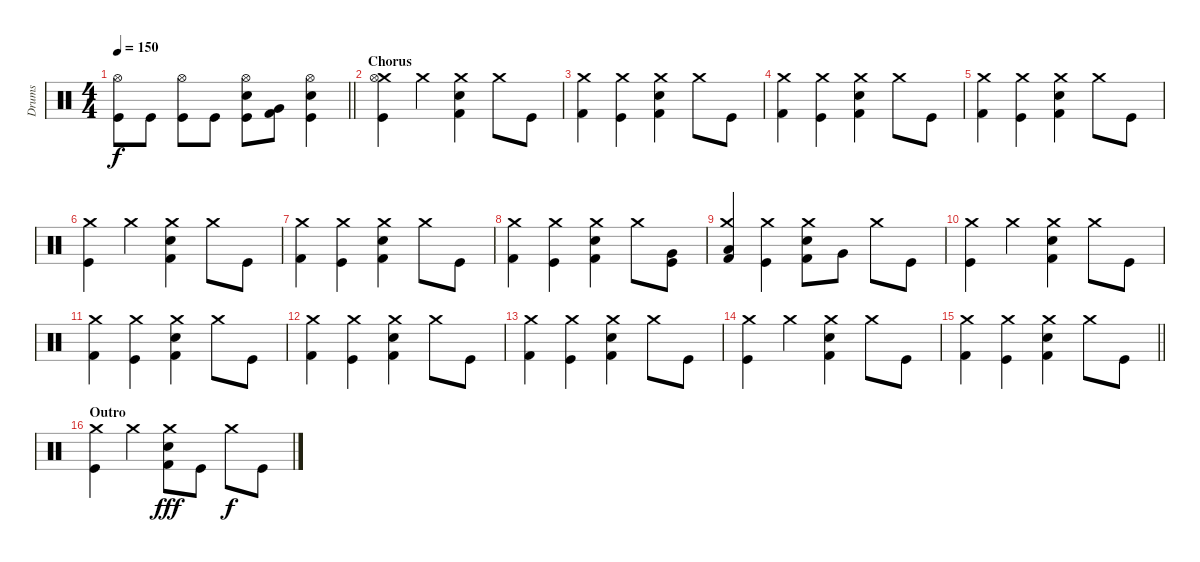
\track ("Drums" "Drums") {instrument percussion}
\staff {score}
\articulation defaults
\ts (4 4)
\tempo 150
\clef neutral
\barLineRight lightlight
\ks c
("Hi-Hat (open)" "Kick (hit)").8{dy f} "Kick (hit)".8 ("Hi-Hat (open)" "Kick (hit)").8 "Kick (hit)".8 ("Hi-Hat (open)" "Electric Snare (hit)" "Kick (hit)").8 ("Very Low Tom (hit)" "Kick (hit) 2").8 ("Hi-Hat (open)" "Electric Snare (hit)" "Kick (hit)").4 |
\section ("" "Chorus")
("Crash medium (hit)" "Hi-Hat (open)" "Kick (hit)").4 "Crash medium (hit)".4 ("Crash medium (hit)" "Electric Snare (hit)" "Kick (hit) 2").4 "Crash medium (hit)".8 "Kick (hit)".8 |
("Crash medium (hit)" "Kick (hit) 2").4 ("Crash medium (hit)" "Kick (hit)").4 ("Crash medium (hit)" "Electric Snare (hit)" "Kick (hit) 2").4 "Crash medium (hit)".8 "Kick (hit)".8 |
("Crash medium (hit)" "Kick (hit) 2").4 ("Crash medium (hit)" "Kick (hit)").4 ("Crash medium (hit)" "Electric Snare (hit)" "Kick (hit) 2").4 "Crash medium (hit)".8 "Kick (hit)".8 |
("Crash medium (hit)" "Kick (hit) 2").4 ("Crash medium (hit)" "Kick (hit)").4 ("Crash medium (hit)" "Electric Snare (hit)" "Kick (hit) 2").4 "Crash medium (hit)".8 "Kick (hit)".8 |
("Crash medium (hit)" "Kick (hit)").4 "Crash medium (hit)".4 ("Crash medium (hit)" "Electric Snare (hit)" "Kick (hit) 2").4 "Crash medium (hit)".8 "Kick (hit)".8 |
("Crash medium (hit)" "Kick (hit) 2").4 ("Crash medium (hit)" "Kick (hit)").4 ("Crash medium (hit)" "Electric Snare (hit)" "Kick (hit) 2").4 "Crash medium (hit)".8 "Kick (hit)".8 |
("Crash medium (hit)" "Kick (hit) 2").4 ("Crash medium (hit)" "Kick (hit)").4 ("Crash medium (hit)" "Electric Snare (hit)" "Kick (hit) 2").4 "Crash medium (hit)".8 ("Very Low Tom (hit)" "Kick (hit)").8 |
("Crash medium (hit)" "Low Tom (hit)" "Kick (hit) 2").4 ("Crash medium (hit)" "Kick (hit)").4 ("Crash medium (hit)" "Electric Snare (hit)" "Kick (hit) 2").8 "Very Low Tom (hit)".8 "Crash medium (hit)".8 "Kick (hit)".8 |
("Crash medium (hit)" "Kick (hit)").4 "Crash medium (hit)".4 ("Crash medium (hit)" "Electric Snare (hit)" "Kick (hit) 2").4 "Crash medium (hit)".8 "Kick (hit)".8 |
("Crash medium (hit)" "Kick (hit) 2").4 ("Crash medium (hit)" "Kick (hit)").4 ("Crash medium (hit)" "Electric Snare (hit)" "Kick (hit) 2").4 "Crash medium (hit)".8 "Kick (hit)".8 |
("Crash medium (hit)" "Kick (hit) 2").4 ("Crash medium (hit)" "Kick (hit)").4 ("Crash medium (hit)" "Electric Snare (hit)" "Kick (hit) 2").4 "Crash medium (hit)".8 "Kick (hit)".8 |
("Crash medium (hit)" "Kick (hit) 2").4 ("Crash medium (hit)" "Kick (hit)").4 ("Crash medium (hit)" "Electric Snare (hit)" "Kick (hit) 2").4 "Crash medium (hit)".8 "Kick (hit)".8 |
("Crash medium (hit)" "Kick (hit)").4 "Crash medium (hit)".4 ("Crash medium (hit)" "Electric Snare (hit)" "Kick (hit) 2").4 "Crash medium (hit)".8 "Kick (hit)".8 |
\barLineRight lightlight
("Crash medium (hit)" "Kick (hit) 2").4 ("Crash medium (hit)" "Kick (hit)").4 ("Crash medium (hit)" "Electric Snare (hit)" "Kick (hit) 2").4 "Crash medium (hit)".8 "Kick (hit)".8 |
\section ("" "Outro")
("Crash medium (hit)" "Kick (hit)").4 "Crash medium (hit)".4 ("Crash medium (hit)" "Electric Snare (hit)" "Kick (hit) 2").8{dy fff} "Kick (hit)".8 "Crash medium (hit)".8{dy f} "Kick (hit)".8
